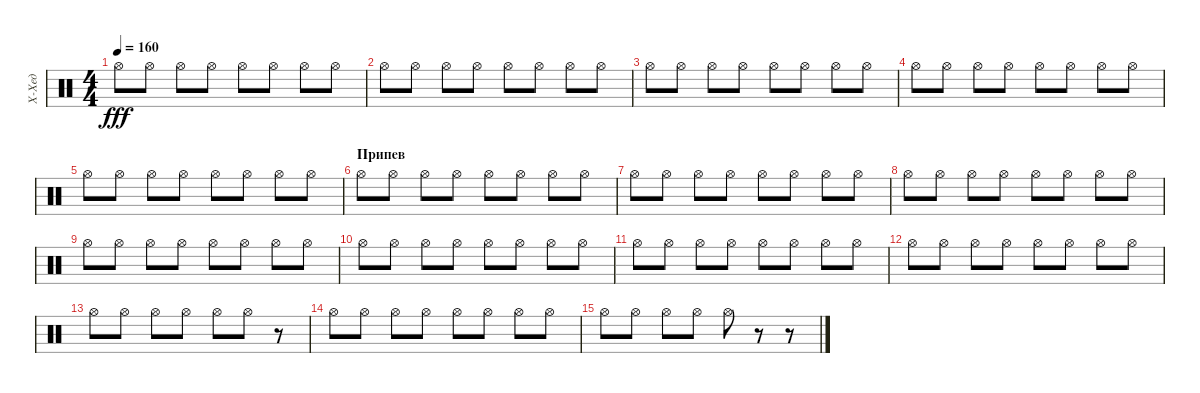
\track ("Х-Хед" "Х-Хед") {instrument percussion}
\staff {score}
\articulation defaults
\ts (4 4)
\tempo 160
\clef neutral
\ks c "Hi-Hat (open)".8{dy fff} "Hi-Hat (open)".8 "Hi-Hat (open)".8 "Hi-Hat (open)".8 "Hi-Hat (open)".8 "Hi-Hat (open)".8 "Hi-Hat (open)".8 "Hi-Hat (open)".8
|
"Hi-Hat (open)".8 "Hi-Hat (open)".8 "Hi-Hat (open)".8 "Hi-Hat (open)".8 "Hi-Hat (open)".8 "Hi-Hat (open)".8 "Hi-Hat (open)".8 "Hi-Hat (open)".8 |
"Hi-Hat (open)".8 "Hi-Hat (open)".8 "Hi-Hat (open)".8 "Hi-Hat (open)".8 "Hi-Hat (open)".8 "Hi-Hat (open)".8 "Hi-Hat (open)".8 "Hi-Hat (open)".8 |
"Hi-Hat (open)".8 "Hi-Hat (open)".8 "Hi-Hat (open)".8 "Hi-Hat (open)".8 "Hi-Hat (open)".8 "Hi-Hat (open)".8 "Hi-Hat (open)".8 "Hi-Hat (open)".8 |
"Hi-Hat (open)".8 "Hi-Hat (open)".8 "Hi-Hat (open)".8 "Hi-Hat (open)".8 "Hi-Hat (open)".8 "Hi-Hat (open)".8 "Hi-Hat (open)".8 "Hi-Hat (open)".8 |
\section ("" "Припев")
"Hi-Hat (open)".8 "Hi-Hat (open)".8 "Hi-Hat (open)".8 "Hi-Hat (open)".8 "Hi-Hat (open)".8 "Hi-Hat (open)".8 "Hi-Hat (open)".8 "Hi-Hat (open)".8 |
"Hi-Hat (open)".8 "Hi-Hat (open)".8 "Hi-Hat (open)".8 "Hi-Hat (open)".8 "Hi-Hat (open)".8 "Hi-Hat (open)".8 "Hi-Hat (open)".8 "Hi-Hat (open)".8 |
"Hi-Hat (open)".8 "Hi-Hat (open)".8 "Hi-Hat (open)".8 "Hi-Hat (open)".8 "Hi-Hat (open)".8 "Hi-Hat (open)".8 "Hi-Hat (open)".8 "Hi-Hat (open)".8 |
"Hi-Hat (open)".8 "Hi-Hat (open)".8 "Hi-Hat (open)".8 "Hi-Hat (open)".8 "Hi-Hat (open)".8 "Hi-Hat (open)".8 "Hi-Hat (open)".8 "Hi-Hat (open)".8 |
"Hi-Hat (open)".8 "Hi-Hat (open)".8 "Hi-Hat (open)".8 "Hi-Hat (open)".8 "Hi-Hat (open)".8 "Hi-Hat (open)".8 "Hi-Hat (open)".8 "Hi-Hat (open)".8 |
"Hi-Hat (open)".8 "Hi-Hat (open)".8 "Hi-Hat (open)".8 "Hi-Hat (open)".8 "Hi-Hat (open)".8 "Hi-Hat (open)".8 "Hi-Hat (open)".8 "Hi-Hat (open)".8 |
"Hi-Hat (open)".8 "Hi-Hat (open)".8 "Hi-Hat (open)".8 "Hi-Hat (open)".8 "Hi-Hat (open)".8 "Hi-Hat (open)".8 "Hi-Hat (open)".8 "Hi-Hat (open)".8 |
"Hi-Hat (open)".8 "Hi-Hat (open)".8 "Hi-Hat (open)".8 "Hi-Hat (open)".8 "Hi-Hat (open)".8 "Hi-Hat (open)".8 r.8 |
"Hi-Hat (open)".8 "Hi-Hat (open)".8 "Hi-Hat (open)".8 "Hi-Hat (open)".8 "Hi-Hat (open)".8 "Hi-Hat (open)".8 "Hi-Hat (open)".8 "Hi-Hat (open)".8 |
"Hi-Hat (open)".8 "Hi-Hat (open)".8 "Hi-Hat (open)".8 "Hi-Hat (open)".8 "Hi-Hat (open)".8 r.8 r.8
